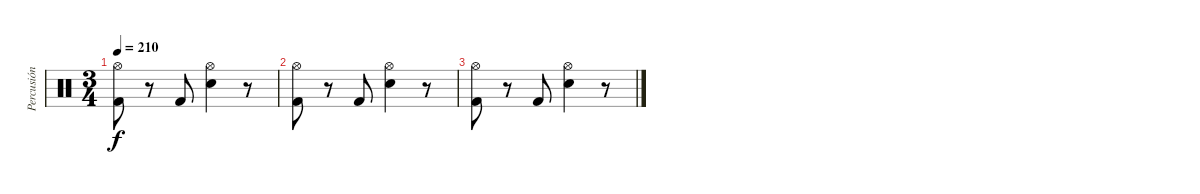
\track ("Percusión" "Percusión") {instrument percussion}
\staff {score}
\articulation defaults
\ts (3 4)
\tempo 210
\clef neutral
\ks c
("Kick (hit) 2" "Hi-Hat (open)").8{dy f} r.8 "Kick (hit) 2".8 ("Electric Snare (hit)" "Hi-Hat (open)").4 r.8 |
("Kick (hit) 2" "Hi-Hat (open)").8 r.8 "Kick (hit) 2".8 ("Electric Snare (hit)" "Hi-Hat (open)").4 r.8 |
("Kick (hit) 2" "Hi-Hat (open)").8 r.8 "Kick (hit) 2".8 ("Electric Snare (hit)" "Hi-Hat (open)").4 r.8
